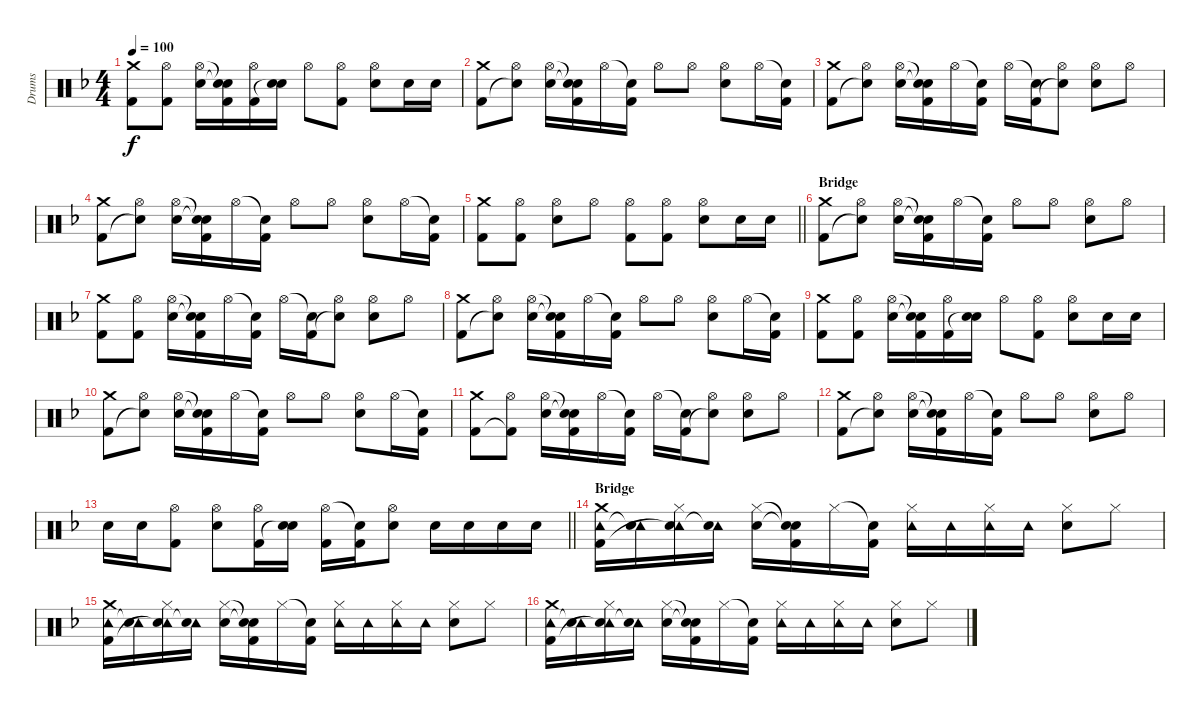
\track ("Drums" "Drums") {instrument percussion}
\staff {score}
\articulation defaults
\ts (4 4)
\tempo 100
\clef neutral
\ks dminor
("Crash medium (hit)" "Kick (hit) 2").8{dy f} ("Hi-Hat (open)" "Kick (hit) 2").8 ("Hi-Hat (open)" "Electric Snare (hit)").16 ("Snare (hit)"{t} "Snare (hit)"{t} "Kick (hit) 2").16 ("Hi-Hat (open)" "Kick (hit) 2").16 ("Electric Snare (hit)" "Snare (hit)"{t}).16 "Hi-Hat (open)".8 ("Hi-Hat (open)" "Kick (hit) 2").8 ("Hi-Hat (open)" "Electric Snare (hit)").8 "Electric Snare (hit)".16 "Electric Snare (hit)".16 |
("Crash medium (hit)" "Kick (hit) 2").8 ("Hi-Hat (open)" "Snare (hit)"{t}).8 ("Hi-Hat (open)" "Electric Snare (hit)").16 ("Snare (hit)"{t} "Snare (hit)"{t} "Kick (hit) 2").16 "Hi-Hat (open)".16 ("Snare (hit)"{t} "Kick (hit) 2").16 "Hi-Hat (open)".8 "Hi-Hat (open)".8 ("Hi-Hat (open)" "Electric Snare (hit)").8 "Hi-Hat (open)".16 ("Snare (hit)"{t} "Kick (hit) 2").16 |
("Crash medium (hit)" "Kick (hit) 2").8 ("Hi-Hat (open)" "Snare (hit)"{t}).8 ("Hi-Hat (open)" "Electric Snare (hit)").16 ("Snare (hit)"{t} "Snare (hit)"{t} "Kick (hit) 2").16 "Hi-Hat (open)".16 ("Snare (hit)"{t} "Kick (hit) 2").16 "Hi-Hat (open)".16 ("Snare (hit)"{t} "Kick (hit) 2").16 ("Hi-Hat (open)" "Snare (hit)"{t}).8 ("Hi-Hat (open)" "Electric Snare (hit)").8 "Hi-Hat (open)".8 |
("Crash medium (hit)" "Kick (hit) 2").8 ("Hi-Hat (open)" "Snare (hit)"{t}).8 ("Hi-Hat (open)" "Electric Snare (hit)").16 ("Snare (hit)"{t} "Snare (hit)"{t} "Kick (hit) 2").16 "Hi-Hat (open)".16 ("Snare (hit)"{t} "Kick (hit) 2").16 "Hi-Hat (open)".8 "Hi-Hat (open)".8 ("Hi-Hat (open)" "Electric Snare (hit)").8 "Hi-Hat (open)".16 ("Snare (hit)"{t} "Kick (hit) 2").16 |
\barLineRight lightlight
("Crash medium (hit)" "Kick (hit) 2").8 ("Hi-Hat (open)" "Kick (hit) 2").8 ("Hi-Hat (open)" "Electric Snare (hit)").8 "Hi-Hat (open)".8 ("Hi-Hat (open)" "Kick (hit) 2").8 ("Hi-Hat (open)" "Kick (hit) 2").8 ("Hi-Hat (open)" "Electric Snare (hit)").8 "Electric Snare (hit)".16 "Electric Snare (hit)".16 |
\section ("" "Bridge")
("Crash medium (hit)" "Kick (hit) 2").8 ("Hi-Hat (open)" "Snare (hit)"{t}).8 ("Hi-Hat (open)" "Electric Snare (hit)").16 ("Snare (hit)"{t} "Snare (hit)"{t} "Kick (hit) 2").16 "Hi-Hat (open)".16 ("Snare (hit)"{t} "Kick (hit) 2").16 "Hi-Hat (open)".8 "Hi-Hat (open)".8 ("Hi-Hat (open)" "Electric Snare (hit)").8 "Hi-Hat (open)".8 |
("Crash medium (hit)" "Kick (hit) 2").8 ("Hi-Hat (open)" "Kick (hit) 2").8 ("Hi-Hat (open)" "Electric Snare (hit)").16 ("Snare (hit)"{t} "Snare (hit)"{t} "Kick (hit) 2").16 "Hi-Hat (open)".16 ("Snare (hit)"{t} "Kick (hit) 2").16 "Hi-Hat (open)".16 ("Snare (hit)"{t} "Kick (hit) 2").16 ("Hi-Hat (open)" "Snare (hit)"{t}).8 ("Hi-Hat (open)" "Electric Snare (hit)").8 "Hi-Hat (open)".8 |
("Crash medium (hit)" "Kick (hit) 2").8 ("Hi-Hat (open)" "Snare (hit)"{t}).8 ("Hi-Hat (open)" "Electric Snare (hit)").16 ("Snare (hit)"{t} "Snare (hit)"{t} "Kick (hit) 2").16 "Hi-Hat (open)".16 ("Snare (hit)"{t} "Kick (hit) 2").16 "Hi-Hat (open)".8 "Hi-Hat (open)".8 ("Hi-Hat (open)" "Electric Snare (hit)").8 "Hi-Hat (open)".16 ("Snare (hit)"{t} "Kick (hit) 2").16 |
("Crash medium (hit)" "Kick (hit) 2").8 ("Hi-Hat (open)" "Kick (hit) 2").8 ("Hi-Hat (open)" "Electric Snare (hit)").16 ("Snare (hit)"{t} "Snare (hit)"{t} "Kick (hit) 2").16 ("Hi-Hat (open)" "Kick (hit) 2").16 ("Electric Snare (hit)" "Snare (hit)"{t}).16 "Hi-Hat (open)".8 ("Hi-Hat (open)" "Kick (hit) 2").8 ("Hi-Hat (open)" "Electric Snare (hit)").8 "Electric Snare (hit)".16 "Electric Snare (hit)".16 |
("Crash medium (hit)" "Kick (hit) 2").8 ("Hi-Hat (open)" "Snare (hit)"{t}).8 ("Hi-Hat (open)" "Electric Snare (hit)").16 ("Snare (hit)"{t} "Snare (hit)"{t} "Kick (hit) 2").16 "Hi-Hat (open)".16 ("Snare (hit)"{t} "Kick (hit) 2").16 "Hi-Hat (open)".8 "Hi-Hat (open)".8 ("Hi-Hat (open)" "Electric Snare (hit)").8 "Hi-Hat (open)".16 ("Snare (hit)"{t} "Kick (hit) 2").16 |
("Crash medium (hit)" "Kick (hit) 2").8 ("Hi-Hat (open)" "Kick (hit) 2"{t}).8 ("Hi-Hat (open)" "Electric Snare (hit)").16 ("Snare (hit)"{t} "Snare (hit)"{t} "Kick (hit) 2").16 "Hi-Hat (open)".16 ("Snare (hit)"{t} "Kick (hit) 2").16 "Hi-Hat (open)".16 ("Snare (hit)"{t} "Kick (hit) 2").16 ("Hi-Hat (open)" "Snare (hit)"{t}).8 ("Hi-Hat (open)" "Electric Snare (hit)").8 "Hi-Hat (open)".8 |
("Crash medium (hit)" "Kick (hit) 2").8 ("Hi-Hat (open)" "Snare (hit)"{t}).8 ("Hi-Hat (open)" "Electric Snare (hit)").16 ("Snare (hit)"{t} "Snare (hit)"{t} "Kick (hit) 2").16 "Hi-Hat (open)".16 ("Snare (hit)"{t} "Kick (hit) 2").16 "Hi-Hat (open)".8 "Hi-Hat (open)".8 ("Hi-Hat (open)" "Electric Snare (hit)").8 "Hi-Hat (open)".8 |
\barLineRight lightlight "Electric Snare (hit)".16 "Electric Snare (hit)".16
("Hi-Hat (open)" "Kick (hit) 2").8 ("Hi-Hat (open)" "Electric Snare (hit)").8 ("Hi-Hat (open)" "Kick (hit) 2").16 ("Electric Snare (hit)" "Snare (hit)"{t}).16 ("Hi-Hat (open)" "Kick (hit) 2").16 ("Snare (hit)"{t} "Kick (hit) 2").16 ("Hi-Hat (open)" "Electric Snare (hit)").8 "Electric Snare (hit)".16 "Electric Snare (hit)".16 "Electric Snare (hit)".16 "Electric Snare (hit)".16 |
\section ("" "Bridge")
("Crash medium (hit)" "Tambourine (hit)" "Kick (hit) 2").16 ("Tambourine (hit)" "Snare (hit)"{t}).16 ("Hi-Hat (closed)" "Tambourine (hit)" "Snare (hit)"{t}).16 ("Tambourine (hit)" "Snare (hit)"{t}).16 ("Hi-Hat (closed)" "Electric Snare (hit)").16 ("Snare (hit)"{t} "Snare (hit)"{t} "Kick (hit) 2").16 "Hi-Hat (closed)".16 ("Snare (hit)"{t} "Kick (hit) 2").16 ("Hi-Hat (closed)" "Tambourine (hit)").16 "Tambourine (hit)".16 ("Hi-Hat (closed)" "Tambourine (hit)").16 "Tambourine (hit)".16 ("Hi-Hat (closed)" "Electric Snare (hit)").8 "Hi-Hat (closed)".8 |
("Crash medium (hit)" "Tambourine (hit)" "Kick (hit) 2").16 ("Tambourine (hit)" "Snare (hit)"{t}).16 ("Hi-Hat (closed)" "Tambourine (hit)" "Snare (hit)"{t}).16 ("Tambourine (hit)" "Snare (hit)"{t}).16 ("Hi-Hat (closed)" "Electric Snare (hit)").16 ("Snare (hit)"{t} "Snare (hit)"{t} "Kick (hit) 2").16 "Hi-Hat (closed)".16 ("Snare (hit)"{t} "Kick (hit) 2").16 ("Hi-Hat (closed)" "Tambourine (hit)").16 "Tambourine (hit)".16 ("Hi-Hat (closed)" "Tambourine (hit)").16 "Tambourine (hit)".16 ("Hi-Hat (closed)" "Electric Snare (hit)").8 "Hi-Hat (closed)".8 |
("Crash medium (hit)" "Tambourine (hit)" "Kick (hit) 2").16 ("Tambourine (hit)" "Snare (hit)"{t}).16 ("Hi-Hat (closed)" "Tambourine (hit)" "Snare (hit)"{t}).16 ("Tambourine (hit)" "Snare (hit)"{t}).16 ("Hi-Hat (closed)" "Electric Snare (hit)").16 ("Snare (hit)"{t} "Snare (hit)"{t} "Kick (hit) 2").16 "Hi-Hat (closed)".16 ("Snare (hit)"{t} "Kick (hit) 2").16 ("Hi-Hat (closed)" "Tambourine (hit)").16 "Tambourine (hit)".16 ("Hi-Hat (closed)" "Tambourine (hit)").16 "Tambourine (hit)".16 ("Hi-Hat (closed)" "Electric Snare (hit)").8 "Hi-Hat (closed)".8
